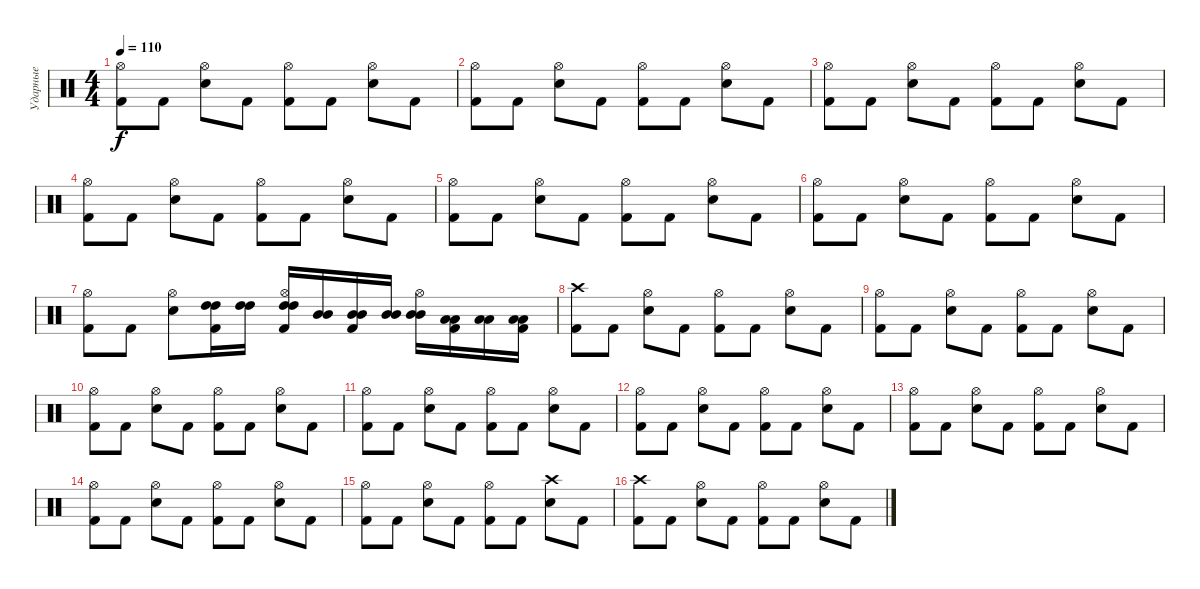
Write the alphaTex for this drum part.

\track ("Ударные" "Ударные") {instrument percussion}
\staff {score}
\articulation defaults
\ts (4 4)
\tempo 110
\clef neutral
\ks c
("Kick (hit) 2" "Hi-Hat (open)").8{dy f} "Kick (hit) 2".8 ("Electric Snare (hit)" "Hi-Hat (open)").8 "Kick (hit) 2".8 ("Kick (hit) 2" "Hi-Hat (open)").8 "Kick (hit) 2".8 ("Electric Snare (hit)" "Hi-Hat (open)").8 "Kick (hit) 2".8 |
("Kick (hit) 2" "Hi-Hat (open)").8 "Kick (hit) 2".8 ("Electric Snare (hit)" "Hi-Hat (open)").8 "Kick (hit) 2".8 ("Kick (hit) 2" "Hi-Hat (open)").8 "Kick (hit) 2".8 ("Electric Snare (hit)" "Hi-Hat (open)").8 "Kick (hit) 2".8 |
("Kick (hit) 2" "Hi-Hat (open)").8 "Kick (hit) 2".8 ("Electric Snare (hit)" "Hi-Hat (open)").8 "Kick (hit) 2".8 ("Kick (hit) 2" "Hi-Hat (open)").8 "Kick (hit) 2".8 ("Electric Snare (hit)" "Hi-Hat (open)").8 "Kick (hit) 2".8 |
("Kick (hit) 2" "Hi-Hat (open)").8 "Kick (hit) 2".8 ("Electric Snare (hit)" "Hi-Hat (open)").8 "Kick (hit) 2".8 ("Kick (hit) 2" "Hi-Hat (open)").8 "Kick (hit) 2".8 ("Electric Snare (hit)" "Hi-Hat (open)").8 "Kick (hit) 2".8 |
("Kick (hit) 2" "Hi-Hat (open)").8 "Kick (hit) 2".8 ("Electric Snare (hit)" "Hi-Hat (open)").8 "Kick (hit) 2".8 ("Kick (hit) 2" "Hi-Hat (open)").8 "Kick (hit) 2".8 ("Electric Snare (hit)" "Hi-Hat (open)").8 "Kick (hit) 2".8 |
("Kick (hit) 2" "Hi-Hat (open)").8 "Kick (hit) 2".8 ("Electric Snare (hit)" "Hi-Hat (open)").8 "Kick (hit) 2".8 ("Kick (hit) 2" "Hi-Hat (open)").8 "Kick (hit) 2".8 ("Electric Snare (hit)" "Hi-Hat (open)").8 "Kick (hit) 2".8 |
("Kick (hit) 2" "Hi-Hat (open)").8 "Kick (hit) 2".8 ("Electric Snare (hit)" "Hi-Hat (open)").8 ("Kick (hit) 2" "High Tom (hit)" "High Tom (hit)").16 ("High Tom (hit)" "High Tom (hit)").16 ("Kick (hit) 2" "Hi-Hat (open)" "High Tom (hit)" "High Tom (hit)").16 ("Mid Tom (hit)" "Mid Tom (hit)").16 ("Kick (hit) 2" "Mid Tom (hit)" "Mid Tom (hit)").16 ("Mid Tom (hit)" "Mid Tom (hit)").16 ("Hi-Hat (open)" "Mid Tom (hit)" "Mid Tom (hit)").16 ("Kick (hit) 2" "Low Tom (hit)" "Low Tom (hit)").16 ("Low Tom (hit)" "Low Tom (hit)").16 ("Kick (hit) 2" "Low Tom (hit)" "Low Tom (hit)").16 |
("Crash high (hit)" "Kick (hit) 2").8 "Kick (hit) 2".8 ("Electric Snare (hit)" "Hi-Hat (open)").8 "Kick (hit) 2".8 ("Kick (hit) 2" "Hi-Hat (open)").8 "Kick (hit) 2".8 ("Electric Snare (hit)" "Hi-Hat (open)").8 "Kick (hit) 2".8 |
("Kick (hit) 2" "Hi-Hat (open)").8 "Kick (hit) 2".8 ("Electric Snare (hit)" "Hi-Hat (open)").8 "Kick (hit) 2".8 ("Kick (hit) 2" "Hi-Hat (open)").8 "Kick (hit) 2".8 ("Electric Snare (hit)" "Hi-Hat (open)").8 "Kick (hit) 2".8 |
("Kick (hit) 2" "Hi-Hat (open)").8 "Kick (hit) 2".8 ("Electric Snare (hit)" "Hi-Hat (open)").8 "Kick (hit) 2".8 ("Kick (hit) 2" "Hi-Hat (open)").8 "Kick (hit) 2".8 ("Electric Snare (hit)" "Hi-Hat (open)").8 "Kick (hit) 2".8 |
("Kick (hit) 2" "Hi-Hat (open)").8 "Kick (hit) 2".8 ("Electric Snare (hit)" "Hi-Hat (open)").8 "Kick (hit) 2".8 ("Kick (hit) 2" "Hi-Hat (open)").8 "Kick (hit) 2".8 ("Electric Snare (hit)" "Hi-Hat (open)").8 "Kick (hit) 2".8 |
("Kick (hit) 2" "Hi-Hat (open)").8 "Kick (hit) 2".8 ("Electric Snare (hit)" "Hi-Hat (open)").8 "Kick (hit) 2".8 ("Kick (hit) 2" "Hi-Hat (open)").8 "Kick (hit) 2".8 ("Electric Snare (hit)" "Hi-Hat (open)").8 "Kick (hit) 2".8 |
("Kick (hit) 2" "Hi-Hat (open)").8 "Kick (hit) 2".8 ("Electric Snare (hit)" "Hi-Hat (open)").8 "Kick (hit) 2".8 ("Kick (hit) 2" "Hi-Hat (open)").8 "Kick (hit) 2".8 ("Electric Snare (hit)" "Hi-Hat (open)").8 "Kick (hit) 2".8 |
("Kick (hit) 2" "Hi-Hat (open)").8 "Kick (hit) 2".8 ("Electric Snare (hit)" "Hi-Hat (open)").8 "Kick (hit) 2".8 ("Kick (hit) 2" "Hi-Hat (open)").8 "Kick (hit) 2".8 ("Electric Snare (hit)" "Hi-Hat (open)").8 "Kick (hit) 2".8 |
("Kick (hit) 2" "Hi-Hat (open)").8 "Kick (hit) 2".8 ("Electric Snare (hit)" "Hi-Hat (open)").8 "Kick (hit) 2".8 ("Kick (hit) 2" "Hi-Hat (open)").8 "Kick (hit) 2".8 ("Electric Snare (hit)" "Crash high (hit)").8 "Kick (hit) 2".8 |
("Crash high (hit)" "Kick (hit) 2").8 "Kick (hit) 2".8 ("Electric Snare (hit)" "Hi-Hat (open)").8 "Kick (hit) 2".8 ("Kick (hit) 2" "Hi-Hat (open)").8 "Kick (hit) 2".8 ("Electric Snare (hit)" "Hi-Hat (open)").8 "Kick (hit) 2".8
